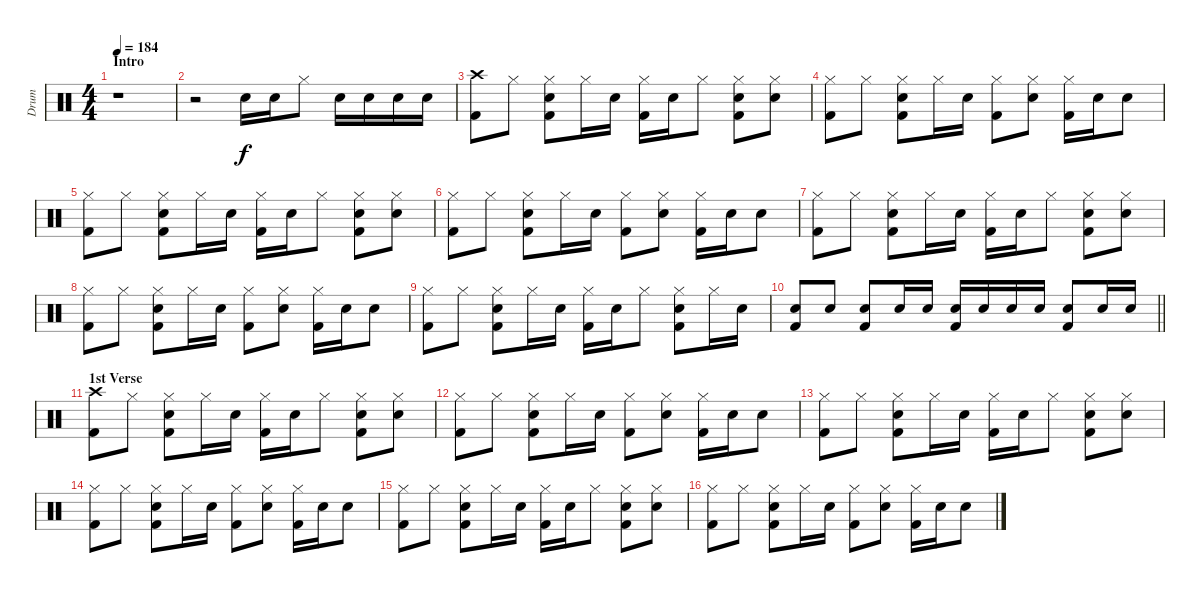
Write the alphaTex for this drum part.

\track ("Drum" "Drum") {instrument percussion}
\staff {score}
\articulation defaults
\ts (4 4)
\section ("" "Intro")
\tempo 184
\clef neutral
\ks c
r.1{dy f} |
r.2 "Electric Snare (hit)".16 "Electric Snare (hit)".16 "Hi-Hat (closed)".8 "Electric Snare (hit)".16 "Electric Snare (hit)".16 "Electric Snare (hit)".16 "Electric Snare (hit)".16 |
("Crash high (hit)" "Kick (hit) 2").8 "Hi-Hat (closed)".8 ("Hi-Hat (closed)" "Electric Snare (hit)" "Kick (hit) 2").8 "Hi-Hat (closed)".16 "Electric Snare (hit)".16 ("Hi-Hat (closed)" "Kick (hit) 2").16 "Electric Snare (hit)".16 "Hi-Hat (closed)".8 ("Hi-Hat (closed)" "Electric Snare (hit)" "Kick (hit) 2").8 ("Hi-Hat (closed)" "Electric Snare (hit)").8 |
("Hi-Hat (closed)" "Kick (hit) 2").8 "Hi-Hat (closed)".8 ("Hi-Hat (closed)" "Electric Snare (hit)" "Kick (hit) 2").8 "Hi-Hat (closed)".16 "Electric Snare (hit)".16 ("Hi-Hat (closed)" "Kick (hit) 2").8 ("Hi-Hat (closed)" "Electric Snare (hit)").8 ("Hi-Hat (closed)" "Kick (hit) 2").16 "Electric Snare (hit)".16 "Electric Snare (hit)".8 |
("Hi-Hat (closed)" "Kick (hit) 2").8 "Hi-Hat (closed)".8 ("Hi-Hat (closed)" "Electric Snare (hit)" "Kick (hit) 2").8 "Hi-Hat (closed)".16 "Electric Snare (hit)".16 ("Hi-Hat (closed)" "Kick (hit) 2").16 "Electric Snare (hit)".16 "Hi-Hat (closed)".8 ("Hi-Hat (closed)" "Electric Snare (hit)" "Kick (hit) 2").8 ("Hi-Hat (closed)" "Electric Snare (hit)").8 |
("Hi-Hat (closed)" "Kick (hit) 2").8 "Hi-Hat (closed)".8 ("Hi-Hat (closed)" "Electric Snare (hit)" "Kick (hit) 2").8 "Hi-Hat (closed)".16 "Electric Snare (hit)".16 ("Hi-Hat (closed)" "Kick (hit) 2").8 ("Hi-Hat (closed)" "Electric Snare (hit)").8 ("Hi-Hat (closed)" "Kick (hit) 2").16 "Electric Snare (hit)".16 "Electric Snare (hit)".8 |
("Hi-Hat (closed)" "Kick (hit) 2").8 "Hi-Hat (closed)".8 ("Hi-Hat (closed)" "Electric Snare (hit)" "Kick (hit) 2").8 "Hi-Hat (closed)".16 "Electric Snare (hit)".16 ("Hi-Hat (closed)" "Kick (hit) 2").16 "Electric Snare (hit)".16 "Hi-Hat (closed)".8 ("Hi-Hat (closed)" "Electric Snare (hit)" "Kick (hit) 2").8 ("Hi-Hat (closed)" "Electric Snare (hit)").8 |
("Hi-Hat (closed)" "Kick (hit) 2").8 "Hi-Hat (closed)".8 ("Hi-Hat (closed)" "Electric Snare (hit)" "Kick (hit) 2").8 "Hi-Hat (closed)".16 "Electric Snare (hit)".16 ("Hi-Hat (closed)" "Kick (hit) 2").8 ("Hi-Hat (closed)" "Electric Snare (hit)").8 ("Hi-Hat (closed)" "Kick (hit) 2").16 "Electric Snare (hit)".16 "Electric Snare (hit)".8 |
("Hi-Hat (closed)" "Kick (hit) 2").8 "Hi-Hat (closed)".8 ("Hi-Hat (closed)" "Electric Snare (hit)" "Kick (hit) 2").8 "Hi-Hat (closed)".16 "Electric Snare (hit)".16 ("Hi-Hat (closed)" "Kick (hit) 2").16 "Electric Snare (hit)".16 "Hi-Hat (closed)".8 ("Hi-Hat (closed)" "Electric Snare (hit)" "Kick (hit) 2").8 "Hi-Hat (closed)".16 "Electric Snare (hit)".16 |
\barLineRight lightlight
("Electric Snare (hit)" "Kick (hit) 2").8 "Electric Snare (hit)".8 ("Electric Snare (hit)" "Kick (hit) 2").8 "Electric Snare (hit)".16 "Electric Snare (hit)".16 ("Electric Snare (hit)" "Kick (hit) 2").16 "Electric Snare (hit)".16 "Electric Snare (hit)".16 "Electric Snare (hit)".16 ("Electric Snare (hit)" "Kick (hit) 2").8 "Electric Snare (hit)".16 "Electric Snare (hit)".16 |
\section ("" "1st Verse")
("Crash high (hit)" "Kick (hit) 2").8 "Hi-Hat (closed)".8 ("Hi-Hat (closed)" "Electric Snare (hit)" "Kick (hit) 2").8 "Hi-Hat (closed)".16 "Electric Snare (hit)".16 ("Hi-Hat (closed)" "Kick (hit) 2").16 "Electric Snare (hit)".16 "Hi-Hat (closed)".8 ("Hi-Hat (closed)" "Electric Snare (hit)" "Kick (hit) 2").8 ("Hi-Hat (closed)" "Electric Snare (hit)").8 |
("Hi-Hat (closed)" "Kick (hit) 2").8 "Hi-Hat (closed)".8 ("Hi-Hat (closed)" "Electric Snare (hit)" "Kick (hit) 2").8 "Hi-Hat (closed)".16 "Electric Snare (hit)".16 ("Hi-Hat (closed)" "Kick (hit) 2").8 ("Hi-Hat (closed)" "Electric Snare (hit)").8 ("Hi-Hat (closed)" "Kick (hit) 2").16 "Electric Snare (hit)".16 "Electric Snare (hit)".8 |
("Hi-Hat (closed)" "Kick (hit) 2").8 "Hi-Hat (closed)".8 ("Hi-Hat (closed)" "Electric Snare (hit)" "Kick (hit) 2").8 "Hi-Hat (closed)".16 "Electric Snare (hit)".16 ("Hi-Hat (closed)" "Kick (hit) 2").16 "Electric Snare (hit)".16 "Hi-Hat (closed)".8 ("Hi-Hat (closed)" "Electric Snare (hit)" "Kick (hit) 2").8 ("Hi-Hat (closed)" "Electric Snare (hit)").8 |
("Hi-Hat (closed)" "Kick (hit) 2").8 "Hi-Hat (closed)".8 ("Hi-Hat (closed)" "Electric Snare (hit)" "Kick (hit) 2").8 "Hi-Hat (closed)".16 "Electric Snare (hit)".16 ("Hi-Hat (closed)" "Kick (hit) 2").8 ("Hi-Hat (closed)" "Electric Snare (hit)").8 ("Hi-Hat (closed)" "Kick (hit) 2").16 "Electric Snare (hit)".16 "Electric Snare (hit)".8 |
("Hi-Hat (closed)" "Kick (hit) 2").8 "Hi-Hat (closed)".8 ("Hi-Hat (closed)" "Electric Snare (hit)" "Kick (hit) 2").8 "Hi-Hat (closed)".16 "Electric Snare (hit)".16 ("Hi-Hat (closed)" "Kick (hit) 2").16 "Electric Snare (hit)".16 "Hi-Hat (closed)".8 ("Hi-Hat (closed)" "Electric Snare (hit)" "Kick (hit) 2").8 ("Hi-Hat (closed)" "Electric Snare (hit)").8 |
("Hi-Hat (closed)" "Kick (hit) 2").8 "Hi-Hat (closed)".8 ("Hi-Hat (closed)" "Electric Snare (hit)" "Kick (hit) 2").8 "Hi-Hat (closed)".16 "Electric Snare (hit)".16 ("Hi-Hat (closed)" "Kick (hit) 2").8 ("Hi-Hat (closed)" "Electric Snare (hit)").8 ("Hi-Hat (closed)" "Kick (hit) 2").16 "Electric Snare (hit)".16 "Electric Snare (hit)".8
